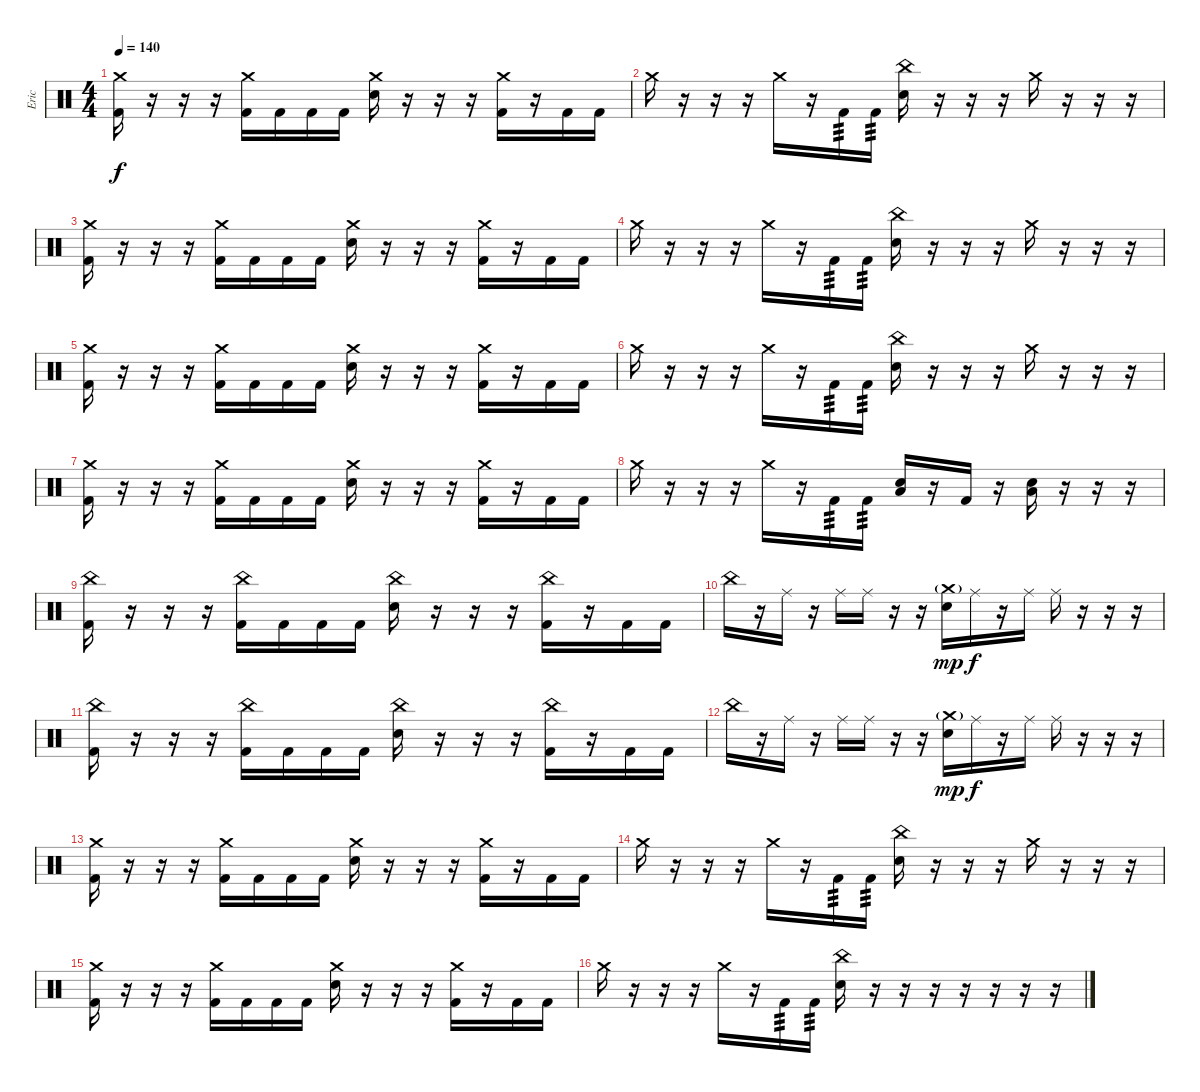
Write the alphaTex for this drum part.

\track ("Eric" "Eric") {instrument percussion}
\staff {score}
\articulation defaults
\ts (4 4)
\tempo 140
\clef neutral
\ks c
("Crash medium (hit)" "Kick (hit) 2").16{dy f} r.16 r.16 r.16 ("Crash medium (hit)" "Kick (hit) 2").16 "Kick (hit) 2".16 "Kick (hit) 2".16 "Kick (hit) 2".16 ("Crash medium (hit)" "Electric Snare (hit)").16 r.16 r.16 r.16 ("Crash medium (hit)" "Kick (hit) 2").16 r.16 "Kick (hit) 2".16 "Kick (hit) 2".16 |
"Crash medium (hit)".16 r.16 r.16 r.16 "Crash medium (hit)".16 r.16 "Kick (hit) 2".16{tp 3} "Kick (hit) 2".16{tp 3} ("China (hit)" "Electric Snare (hit)").16 r.16 r.16 r.16 "Crash medium (hit)".16 r.16 r.16 r.16 |
("Crash medium (hit)" "Kick (hit) 2").16 r.16 r.16 r.16 ("Crash medium (hit)" "Kick (hit) 2").16 "Kick (hit) 2".16 "Kick (hit) 2".16 "Kick (hit) 2".16 ("Crash medium (hit)" "Electric Snare (hit)").16 r.16 r.16 r.16 ("Crash medium (hit)" "Kick (hit) 2").16 r.16 "Kick (hit) 2".16 "Kick (hit) 2".16 |
"Crash medium (hit)".16 r.16 r.16 r.16 "Crash medium (hit)".16 r.16 "Kick (hit) 2".16{tp 3} "Kick (hit) 2".16{tp 3} ("China (hit)" "Electric Snare (hit)").16 r.16 r.16 r.16 "Crash medium (hit)".16 r.16 r.16 r.16 |
("Crash medium (hit)" "Kick (hit) 2").16 r.16 r.16 r.16 ("Crash medium (hit)" "Kick (hit) 2").16 "Kick (hit) 2".16 "Kick (hit) 2".16 "Kick (hit) 2".16 ("Crash medium (hit)" "Electric Snare (hit)").16 r.16 r.16 r.16 ("Crash medium (hit)" "Kick (hit) 2").16 r.16 "Kick (hit) 2".16 "Kick (hit) 2".16 |
"Crash medium (hit)".16 r.16 r.16 r.16 "Crash medium (hit)".16 r.16 "Kick (hit) 2".16{tp 3} "Kick (hit) 2".16{tp 3} ("China (hit)" "Electric Snare (hit)").16 r.16 r.16 r.16 "Crash medium (hit)".16 r.16 r.16 r.16 |
("Crash medium (hit)" "Kick (hit) 2").16 r.16 r.16 r.16 ("Crash medium (hit)" "Kick (hit) 2").16 "Kick (hit) 2".16 "Kick (hit) 2".16 "Kick (hit) 2".16 ("Crash medium (hit)" "Electric Snare (hit)").16 r.16 r.16 r.16 ("Crash medium (hit)" "Kick (hit) 2").16 r.16 "Kick (hit) 2".16 "Kick (hit) 2".16 |
"Crash medium (hit)".16 r.16 r.16 r.16 "Crash medium (hit)".16 r.16 "Kick (hit) 2".16{tp 3} "Kick (hit) 2".16{tp 3} ("Low Tom (hit)" "Electric Snare (hit)").16 r.16 "Kick (hit) 2".16 r.16 ("Low Tom (hit)" "Electric Snare (hit)").16 r.16 r.16 r.16 |
("China (hit)" "Kick (hit) 2").16 r.16 r.16 r.16 ("China (hit)" "Kick (hit) 2").16 "Kick (hit) 2".16 "Kick (hit) 2".16 "Kick (hit) 2".16 ("China (hit)" "Electric Snare (hit)").16 r.16 r.16 r.16 ("China (hit)" "Kick (hit) 2").16 r.16 "Kick (hit) 2".16 "Kick (hit) 2".16 |
"China (hit)".16 r.16 "Ride (middle)".16 r.16 "Ride (middle)".16 "Ride (middle)".16 r.16 r.16 ("Crash medium (hit)"{g} "Electric Snare (hit)").16{dy mp} "Ride (middle)".16{dy f} r.16 "Ride (middle)".16 "Ride (middle)".16 r.16 r.16 r.16 |
("China (hit)" "Kick (hit) 2").16 r.16 r.16 r.16 ("China (hit)" "Kick (hit) 2").16 "Kick (hit) 2".16 "Kick (hit) 2".16 "Kick (hit) 2".16 ("China (hit)" "Electric Snare (hit)").16 r.16 r.16 r.16 ("China (hit)" "Kick (hit) 2").16 r.16 "Kick (hit) 2".16 "Kick (hit) 2".16 |
"China (hit)".16 r.16 "Ride (middle)".16 r.16 "Ride (middle)".16 "Ride (middle)".16 r.16 r.16 ("Crash medium (hit)"{g} "Electric Snare (hit)").16{dy mp} "Ride (middle)".16{dy f} r.16 "Ride (middle)".16 "Ride (middle)".16 r.16 r.16 r.16 |
("Crash medium (hit)" "Kick (hit) 2").16 r.16 r.16 r.16 ("Crash medium (hit)" "Kick (hit) 2").16 "Kick (hit) 2".16 "Kick (hit) 2".16 "Kick (hit) 2".16 ("Crash medium (hit)" "Electric Snare (hit)").16 r.16 r.16 r.16 ("Crash medium (hit)" "Kick (hit) 2").16 r.16 "Kick (hit) 2".16 "Kick (hit) 2".16 |
"Crash medium (hit)".16 r.16 r.16 r.16 "Crash medium (hit)".16 r.16 "Kick (hit) 2".16{tp 3} "Kick (hit) 2".16{tp 3} ("China (hit)" "Electric Snare (hit)").16 r.16 r.16 r.16 "Crash medium (hit)".16 r.16 r.16 r.16 |
("Crash medium (hit)" "Kick (hit) 2").16 r.16 r.16 r.16 ("Crash medium (hit)" "Kick (hit) 2").16 "Kick (hit) 2".16 "Kick (hit) 2".16 "Kick (hit) 2".16 ("Crash medium (hit)" "Electric Snare (hit)").16 r.16 r.16 r.16 ("Crash medium (hit)" "Kick (hit) 2").16 r.16 "Kick (hit) 2".16 "Kick (hit) 2".16 |
"Crash medium (hit)".16 r.16 r.16 r.16 "Crash medium (hit)".16 r.16 "Kick (hit) 2".16{tp 3} "Kick (hit) 2".16{tp 3} ("China (hit)" "Electric Snare (hit)").16 r.16 r.16 r.16 r.16 r.16 r.16 r.16
